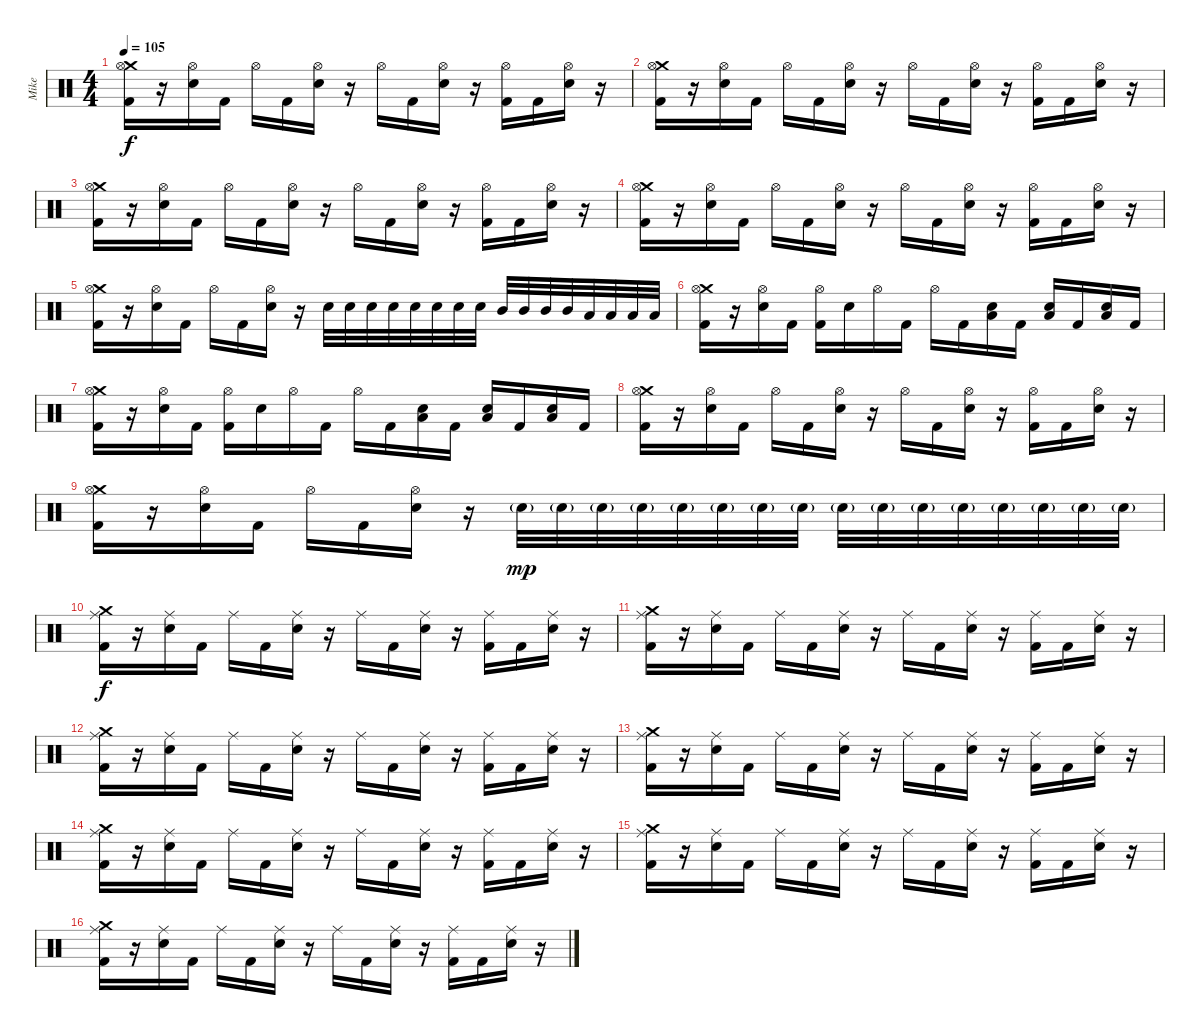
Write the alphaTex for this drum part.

\track ("Mike" "Mike") {instrument percussion}
\staff {score}
\articulation defaults
\ts (4 4)
\tempo 105
\clef neutral
\ks c
("Crash medium (hit)" "Hi-Hat (open)" "Kick (hit) 2").16{dy f} r.16 ("Hi-Hat (open)" "Electric Snare (hit)").16 "Kick (hit) 2".16 "Hi-Hat (open)".16 "Kick (hit) 2".16 ("Hi-Hat (open)" "Electric Snare (hit)").16 r.16 "Hi-Hat (open)".16 "Kick (hit) 2".16 ("Hi-Hat (open)" "Electric Snare (hit)").16 r.16 ("Hi-Hat (open)" "Kick (hit) 2").16 "Kick (hit) 2".16 ("Hi-Hat (open)" "Electric Snare (hit)").16 r.16 |
("Crash medium (hit)" "Hi-Hat (open)" "Kick (hit) 2").16 r.16 ("Hi-Hat (open)" "Electric Snare (hit)").16 "Kick (hit) 2".16 "Hi-Hat (open)".16 "Kick (hit) 2".16 ("Hi-Hat (open)" "Electric Snare (hit)").16 r.16 "Hi-Hat (open)".16 "Kick (hit) 2".16 ("Hi-Hat (open)" "Electric Snare (hit)").16 r.16 ("Hi-Hat (open)" "Kick (hit) 2").16 "Kick (hit) 2".16 ("Hi-Hat (open)" "Electric Snare (hit)").16 r.16 |
("Crash medium (hit)" "Hi-Hat (open)" "Kick (hit) 2").16 r.16 ("Hi-Hat (open)" "Electric Snare (hit)").16 "Kick (hit) 2".16 "Hi-Hat (open)".16 "Kick (hit) 2".16 ("Hi-Hat (open)" "Electric Snare (hit)").16 r.16 "Hi-Hat (open)".16 "Kick (hit) 2".16 ("Hi-Hat (open)" "Electric Snare (hit)").16 r.16 ("Hi-Hat (open)" "Kick (hit) 2").16 "Kick (hit) 2".16 ("Hi-Hat (open)" "Electric Snare (hit)").16 r.16 |
("Crash medium (hit)" "Hi-Hat (open)" "Kick (hit) 2").16 r.16 ("Hi-Hat (open)" "Electric Snare (hit)").16 "Kick (hit) 2".16 "Hi-Hat (open)".16 "Kick (hit) 2".16 ("Hi-Hat (open)" "Electric Snare (hit)").16 r.16 "Hi-Hat (open)".16 "Kick (hit) 2".16 ("Hi-Hat (open)" "Electric Snare (hit)").16 r.16 ("Hi-Hat (open)" "Kick (hit) 2").16 "Kick (hit) 2".16 ("Hi-Hat (open)" "Electric Snare (hit)").16 r.16 |
("Crash medium (hit)" "Hi-Hat (open)" "Kick (hit) 2").16 r.16 ("Hi-Hat (open)" "Electric Snare (hit)").16 "Kick (hit) 2".16 "Hi-Hat (open)".16 "Kick (hit) 2".16 ("Hi-Hat (open)" "Electric Snare (hit)").16 r.16 "Electric Snare (hit)".32 "Electric Snare (hit)".32 "Electric Snare (hit)".32 "Electric Snare (hit)".32 "Electric Snare (hit)".32 "Electric Snare (hit)".32 "Electric Snare (hit)".32 "Electric Snare (hit)".32 "Mid Tom (hit)".32 "Mid Tom (hit)".32 "Mid Tom (hit)".32 "Mid Tom (hit)".32 "Low Tom (hit)".32 "Low Tom (hit)".32 "Low Tom (hit)".32 "Low Tom (hit)".32 |
("Crash medium (hit)" "Hi-Hat (open)" "Kick (hit) 2").16 r.16 ("Hi-Hat (open)" "Electric Snare (hit)").16 "Kick (hit) 2".16 ("Hi-Hat (open)" "Kick (hit) 2").16 "Electric Snare (hit)".16 "Hi-Hat (open)".16 "Kick (hit) 2".16 "Hi-Hat (open)".16 "Kick (hit) 2".16 ("Low Tom (hit)" "Electric Snare (hit)").16 "Kick (hit) 2".16 ("Low Tom (hit)" "Electric Snare (hit)").16 "Kick (hit) 2".16 ("Low Tom (hit)" "Electric Snare (hit)").16 "Kick (hit) 2".16 |
("Crash medium (hit)" "Hi-Hat (open)" "Kick (hit) 2").16 r.16 ("Hi-Hat (open)" "Electric Snare (hit)").16 "Kick (hit) 2".16 ("Hi-Hat (open)" "Kick (hit) 2").16 "Electric Snare (hit)".16 "Hi-Hat (open)".16 "Kick (hit) 2".16 "Hi-Hat (open)".16 "Kick (hit) 2".16 ("Low Tom (hit)" "Electric Snare (hit)").16 "Kick (hit) 2".16 ("Low Tom (hit)" "Electric Snare (hit)").16 "Kick (hit) 2".16 ("Low Tom (hit)" "Electric Snare (hit)").16 "Kick (hit) 2".16 |
("Crash medium (hit)" "Hi-Hat (open)" "Kick (hit) 2").16 r.16 ("Hi-Hat (open)" "Electric Snare (hit)").16 "Kick (hit) 2".16 "Hi-Hat (open)".16 "Kick (hit) 2".16 ("Hi-Hat (open)" "Electric Snare (hit)").16 r.16 "Hi-Hat (open)".16 "Kick (hit) 2".16 ("Hi-Hat (open)" "Electric Snare (hit)").16 r.16 ("Hi-Hat (open)" "Kick (hit) 2").16 "Kick (hit) 2".16 ("Hi-Hat (open)" "Electric Snare (hit)").16 r.16 |
("Crash medium (hit)" "Hi-Hat (open)" "Kick (hit) 2").16 r.16 ("Hi-Hat (open)" "Electric Snare (hit)").16 "Kick (hit) 2".16 "Hi-Hat (open)".16 "Kick (hit) 2".16 ("Hi-Hat (open)" "Electric Snare (hit)").16 r.16 "Electric Snare (hit)"{g}.32{dy mp} "Electric Snare (hit)"{g}.32 "Electric Snare (hit)"{g}.32 "Electric Snare (hit)"{g}.32 "Electric Snare (hit)"{g}.32 "Electric Snare (hit)"{g}.32 "Electric Snare (hit)"{g}.32 "Electric Snare (hit)"{g}.32 "Electric Snare (hit)"{g}.32 "Electric Snare (hit)"{g}.32 "Electric Snare (hit)"{g}.32 "Electric Snare (hit)"{g}.32 "Electric Snare (hit)"{g}.32 "Electric Snare (hit)"{g}.32 "Electric Snare (hit)"{g}.32 "Electric Snare (hit)"{g}.32 |
("Crash medium (hit)" "Ride (middle)" "Kick (hit) 2").16{dy f} r.16 ("Ride (middle)" "Electric Snare (hit)").16 "Kick (hit) 2".16 "Ride (middle)".16 "Kick (hit) 2".16 ("Ride (middle)" "Electric Snare (hit)").16 r.16 "Ride (middle)".16 "Kick (hit) 2".16 ("Ride (middle)" "Electric Snare (hit)").16 r.16 ("Ride (middle)" "Kick (hit) 2").16 "Kick (hit) 2".16 ("Ride (middle)" "Electric Snare (hit)").16 r.16 |
("Crash medium (hit)" "Ride (middle)" "Kick (hit) 2").16 r.16 ("Ride (middle)" "Electric Snare (hit)").16 "Kick (hit) 2".16 "Ride (middle)".16 "Kick (hit) 2".16 ("Ride (middle)" "Electric Snare (hit)").16 r.16 "Ride (middle)".16 "Kick (hit) 2".16 ("Ride (middle)" "Electric Snare (hit)").16 r.16 ("Ride (middle)" "Kick (hit) 2").16 "Kick (hit) 2".16 ("Ride (middle)" "Electric Snare (hit)").16 r.16 |
("Crash medium (hit)" "Ride (middle)" "Kick (hit) 2").16 r.16 ("Ride (middle)" "Electric Snare (hit)").16 "Kick (hit) 2".16 "Ride (middle)".16 "Kick (hit) 2".16 ("Ride (middle)" "Electric Snare (hit)").16 r.16 "Ride (middle)".16 "Kick (hit) 2".16 ("Ride (middle)" "Electric Snare (hit)").16 r.16 ("Ride (middle)" "Kick (hit) 2").16 "Kick (hit) 2".16 ("Ride (middle)" "Electric Snare (hit)").16 r.16 |
("Crash medium (hit)" "Ride (middle)" "Kick (hit) 2").16 r.16 ("Ride (middle)" "Electric Snare (hit)").16 "Kick (hit) 2".16 "Ride (middle)".16 "Kick (hit) 2".16 ("Ride (middle)" "Electric Snare (hit)").16 r.16 "Ride (middle)".16 "Kick (hit) 2".16 ("Ride (middle)" "Electric Snare (hit)").16 r.16 ("Ride (middle)" "Kick (hit) 2").16 "Kick (hit) 2".16 ("Ride (middle)" "Electric Snare (hit)").16 r.16 |
("Crash medium (hit)" "Ride (middle)" "Kick (hit) 2").16 r.16 ("Ride (middle)" "Electric Snare (hit)").16 "Kick (hit) 2".16 "Ride (middle)".16 "Kick (hit) 2".16 ("Ride (middle)" "Electric Snare (hit)").16 r.16 "Ride (middle)".16 "Kick (hit) 2".16 ("Ride (middle)" "Electric Snare (hit)").16 r.16 ("Ride (middle)" "Kick (hit) 2").16 "Kick (hit) 2".16 ("Ride (middle)" "Electric Snare (hit)").16 r.16 |
("Crash medium (hit)" "Ride (middle)" "Kick (hit) 2").16 r.16 ("Ride (middle)" "Electric Snare (hit)").16 "Kick (hit) 2".16 "Ride (middle)".16 "Kick (hit) 2".16 ("Ride (middle)" "Electric Snare (hit)").16 r.16 "Ride (middle)".16 "Kick (hit) 2".16 ("Ride (middle)" "Electric Snare (hit)").16 r.16 ("Ride (middle)" "Kick (hit) 2").16 "Kick (hit) 2".16 ("Ride (middle)" "Electric Snare (hit)").16 r.16 |
("Crash medium (hit)" "Ride (middle)" "Kick (hit) 2").16 r.16 ("Ride (middle)" "Electric Snare (hit)").16 "Kick (hit) 2".16 "Ride (middle)".16 "Kick (hit) 2".16 ("Ride (middle)" "Electric Snare (hit)").16 r.16 "Ride (middle)".16 "Kick (hit) 2".16 ("Ride (middle)" "Electric Snare (hit)").16 r.16 ("Ride (middle)" "Kick (hit) 2").16 "Kick (hit) 2".16 ("Ride (middle)" "Electric Snare (hit)").16 r.16
